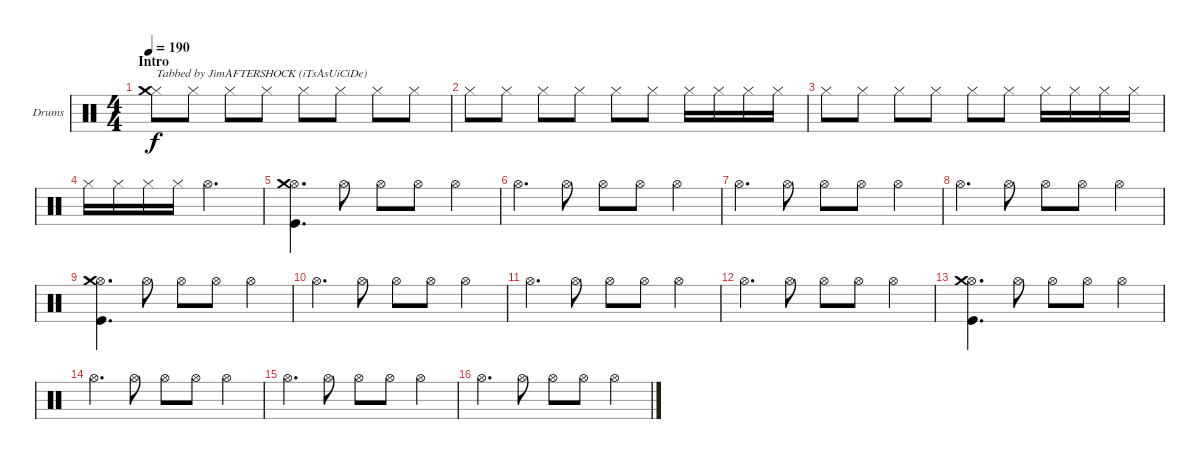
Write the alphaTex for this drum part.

\bracketExtendMode groupsimilarinstruments
\firstSystemTrackNameOrientation horizontal
\otherSystemsTrackNameOrientation horizontal
\track ("Drumkit" "Drums") {instrument percussion}
\staff {score}
\articulation defaults
\ts (4 4)
\beaming (8 2 2 2 2)
\section ("" "Intro")
\tempo 190
\clef neutral
\ks c
("Hi-Hat (closed)" "Crash medium (hit)").8{txt "Tabbed by JimAFTERSHOCK (iTsAsUiCiDe)" dy f} "Hi-Hat (closed)".8 "Hi-Hat (closed)".8 "Hi-Hat (closed)".8 "Hi-Hat (closed)".8 "Hi-Hat (closed)".8 "Hi-Hat (closed)".8 "Hi-Hat (closed)".8 |
"Hi-Hat (closed)".8 "Hi-Hat (closed)".8 "Hi-Hat (closed)".8 "Hi-Hat (closed)".8 "Hi-Hat (closed)".8 "Hi-Hat (closed)".8 "Hi-Hat (closed)".16 "Hi-Hat (closed)".16 "Hi-Hat (closed)".16 "Hi-Hat (closed)".16 |
"Hi-Hat (closed)".8 "Hi-Hat (closed)".8 "Hi-Hat (closed)".8 "Hi-Hat (closed)".8 "Hi-Hat (closed)".8 "Hi-Hat (closed)".8 "Hi-Hat (closed)".16 "Hi-Hat (closed)".16 "Hi-Hat (closed)".16 "Hi-Hat (closed)".16 |
"Hi-Hat (closed)".16 "Hi-Hat (closed)".16 "Hi-Hat (closed)".16 "Hi-Hat (closed)".16 "Hi-Hat (open)".2{d} |
("Hi-Hat (open)" "Crash medium (hit)" "Kick (hit)").4{d} "Hi-Hat (open)".8 "Hi-Hat (open)".8 "Hi-Hat (open)".8 "Hi-Hat (open)".4 |
"Hi-Hat (open)".4{d} "Hi-Hat (open)".8 "Hi-Hat (open)".8 "Hi-Hat (open)".8 "Hi-Hat (open)".4 |
"Hi-Hat (open)".4{d} "Hi-Hat (open)".8 "Hi-Hat (open)".8 "Hi-Hat (open)".8 "Hi-Hat (open)".4 |
"Hi-Hat (open)".4{d} "Hi-Hat (open)".8 "Hi-Hat (open)".8 "Hi-Hat (open)".8 "Hi-Hat (open)".4 |
("Hi-Hat (open)" "Kick (hit)" "Crash medium (hit)").4{d} "Hi-Hat (open)".8 "Hi-Hat (open)".8 "Hi-Hat (open)".8 "Hi-Hat (open)".4 |
"Hi-Hat (open)".4{d} "Hi-Hat (open)".8 "Hi-Hat (open)".8 "Hi-Hat (open)".8 "Hi-Hat (open)".4 |
"Hi-Hat (open)".4{d} "Hi-Hat (open)".8 "Hi-Hat (open)".8 "Hi-Hat (open)".8 "Hi-Hat (open)".4 |
"Hi-Hat (open)".4{d} "Hi-Hat (open)".8 "Hi-Hat (open)".8 "Hi-Hat (open)".8 "Hi-Hat (open)".4 |
("Hi-Hat (open)" "Kick (hit)" "Crash medium (hit)").4{d} "Hi-Hat (open)".8 "Hi-Hat (open)".8 "Hi-Hat (open)".8 "Hi-Hat (open)".4 |
"Hi-Hat (open)".4{d} "Hi-Hat (open)".8 "Hi-Hat (open)".8 "Hi-Hat (open)".8 "Hi-Hat (open)".4 |
"Hi-Hat (open)".4{d} "Hi-Hat (open)".8 "Hi-Hat (open)".8 "Hi-Hat (open)".8 "Hi-Hat (open)".4 |
"Hi-Hat (open)".4{d} "Hi-Hat (open)".8 "Hi-Hat (open)".8 "Hi-Hat (open)".8 "Hi-Hat (open)".4
